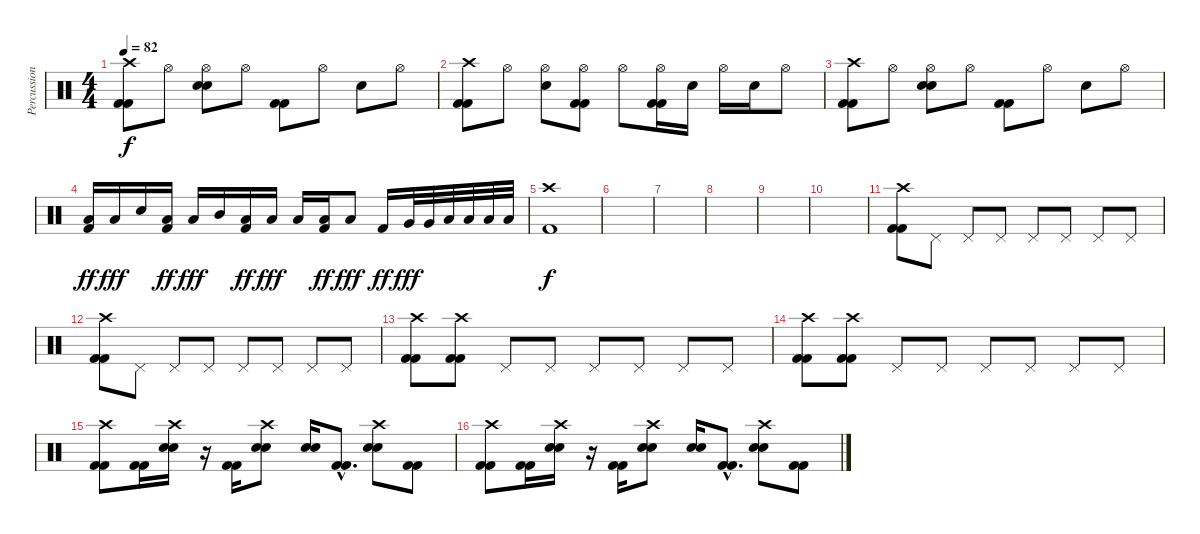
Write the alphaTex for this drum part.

\track ("Percussion" "Percussion") {instrument percussion}
\staff {score}
\articulation defaults
\ts (4 4)
\tempo 82
\clef neutral
\ks c
("Crash high (hit)" "Kick (hit) 2" "Kick (hit) 2").8{dy f} "Hi-Hat (open)".8 ("Hi-Hat (open)" "Electric Snare (hit)" "Electric Snare (hit)").8 "Hi-Hat (open)".8 ("Kick (hit) 2" "Kick (hit) 2").8 "Hi-Hat (open)".8 "Electric Snare (hit)".8 "Hi-Hat (open)".8 |
("Crash high (hit)" "Kick (hit) 2" "Kick (hit) 2").8 "Hi-Hat (open)".8 ("Hi-Hat (open)" "Electric Snare (hit)").8 ("Hi-Hat (open)" "Kick (hit) 2" "Kick (hit) 2").8 "Hi-Hat (open)".8 ("Hi-Hat (open)" "Kick (hit) 2" "Kick (hit) 2").16 "Electric Snare (hit)".16 "Hi-Hat (open)".16 "Electric Snare (hit)".16 "Hi-Hat (open)".8 |
("Crash high (hit)" "Kick (hit) 2" "Kick (hit) 2").8 "Hi-Hat (open)".8 ("Hi-Hat (open)" "Electric Snare (hit)" "Electric Snare (hit)").8 "Hi-Hat (open)".8 ("Kick (hit) 2" "Kick (hit) 2").8 "Hi-Hat (open)".8 "Electric Snare (hit)".8 "Hi-Hat (open)".8 |
("Low Floor Tom (hit)" "Kick (hit) 2").16{dy ff} "Low Floor Tom (hit)".16{dy fff} "Electric Snare (hit)".16 ("Low Floor Tom (hit)" "Kick (hit) 2").16{dy ff} "Low Floor Tom (hit)".16{dy fff} "Mid Tom (hit)".16 ("Low Floor Tom (hit)" "Kick (hit) 2").16{dy ff} "Low Floor Tom (hit)".16{dy fff} "Low Tom (hit)".16 ("Low Floor Tom (hit)" "Kick (hit) 2").16{dy ff} "Low Floor Tom (hit)".8{dy fff} "Kick (hit) 2".16{dy ff} "Very Low Tom (hit)".32{dy fff} "Very Low Tom (hit)".32 "Low Floor Tom (hit)".32 "Low Floor Tom (hit)".32 "Low Floor Tom (hit)".32 "Low Floor Tom (hit)".32 |
("Crash high (hit)" "Kick (hit) 2").1{dy f} |
|
|
|
|
|
("Crash high (hit)" "Kick (hit) 2" "Kick (hit) 2").8 "Pedal Hi-Hat (hit)".8 "Pedal Hi-Hat (hit)".8 "Pedal Hi-Hat (hit)".8 "Pedal Hi-Hat (hit)".8 "Pedal Hi-Hat (hit)".8 "Pedal Hi-Hat (hit)".8 "Pedal Hi-Hat (hit)".8 |
("Crash high (hit)" "Kick (hit) 2" "Kick (hit) 2").8 "Pedal Hi-Hat (hit)".8 "Pedal Hi-Hat (hit)".8 "Pedal Hi-Hat (hit)".8 "Pedal Hi-Hat (hit)".8 "Pedal Hi-Hat (hit)".8 "Pedal Hi-Hat (hit)".8 "Pedal Hi-Hat (hit)".8 |
("Crash high (hit)" "Kick (hit) 2" "Kick (hit) 2").8 ("Crash high (hit)" "Kick (hit) 2" "Kick (hit) 2").8 "Pedal Hi-Hat (hit)".8 "Pedal Hi-Hat (hit)".8 "Pedal Hi-Hat (hit)".8 "Pedal Hi-Hat (hit)".8 "Pedal Hi-Hat (hit)".8 "Pedal Hi-Hat (hit)".8 |
("Crash high (hit)" "Kick (hit) 2" "Kick (hit) 2").8 ("Crash high (hit)" "Kick (hit) 2" "Kick (hit) 2").8 "Pedal Hi-Hat (hit)".8 "Pedal Hi-Hat (hit)".8 "Pedal Hi-Hat (hit)".8 "Pedal Hi-Hat (hit)".8 "Pedal Hi-Hat (hit)".8 "Pedal Hi-Hat (hit)".8 |
("Crash high (hit)" "Kick (hit) 2" "Kick (hit) 2").8 ("Kick (hit) 2" "Kick (hit) 2").16 ("Crash high (hit)" "Electric Snare (hit)" "Electric Snare (hit)").16 r.16 ("Kick (hit) 2" "Kick (hit) 2").16 ("Crash high (hit)" "Electric Snare (hit)" "Electric Snare (hit)").8 ("Electric Snare (hit)" "Electric Snare (hit)").16 ("Kick (hit) 2"{hac} "Kick (hit) 2"{hac}).8{d} ("Crash high (hit)" "Electric Snare (hit)" "Electric Snare (hit)").8 ("Kick (hit) 2" "Kick (hit) 2").8 |
("Crash high (hit)" "Kick (hit) 2" "Kick (hit) 2").8 ("Kick (hit) 2" "Kick (hit) 2").16 ("Crash high (hit)" "Electric Snare (hit)" "Electric Snare (hit)").16 r.16 ("Kick (hit) 2" "Kick (hit) 2").16 ("Crash high (hit)" "Electric Snare (hit)" "Electric Snare (hit)").8 ("Electric Snare (hit)" "Electric Snare (hit)").16 ("Kick (hit) 2"{hac} "Kick (hit) 2"{hac}).8{d} ("Crash high (hit)" "Electric Snare (hit)" "Electric Snare (hit)").8 ("Kick (hit) 2" "Kick (hit) 2").8
